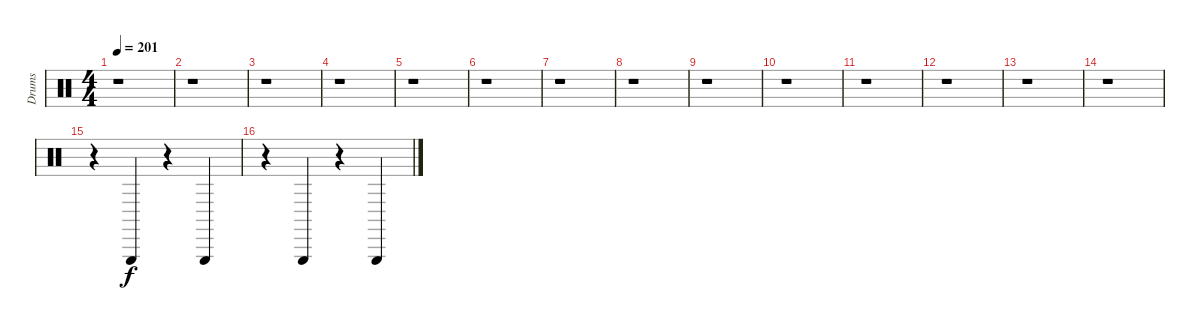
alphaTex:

\track ("Drums" "Drums") {instrument percussion}
\staff {score}
\articulation defaults
\ts (4 4)
\tempo 201
\clef neutral
\ks c
r.1{dy f} |
r.1 |
r.1 |
r.1 |
r.1 |
r.1 |
r.1 |
r.1 |
r.1 |
r.1 |
r.1 |
r.1 |
r.1 |
r.1 |
r.4 "Triangle (hit)".4 r.4 "Triangle (hit)".4 |
r.4 "Triangle (hit)".4 r.4 "Triangle (hit)".4
